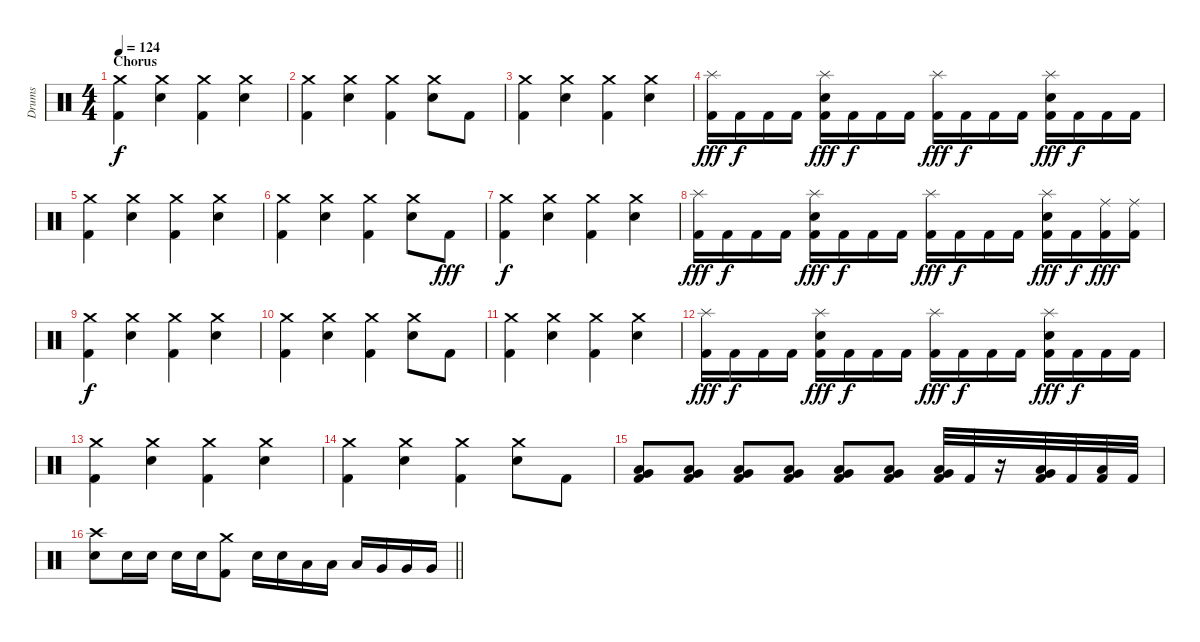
\track ("Drums" "Drums") {instrument percussion}
\staff {score}
\articulation defaults
\ts (4 4)
\section ("" "Chorus")
\tempo 124
\clef neutral
\ks c
("Crash medium (hit)" "Kick (hit) 2").4{dy f} ("Crash medium (hit)" "Electric Snare (hit)").4 ("Crash medium (hit)" "Kick (hit) 2").4 ("Crash medium (hit)" "Electric Snare (hit)").4 |
("Crash medium (hit)" "Kick (hit) 2").4 ("Crash medium (hit)" "Electric Snare (hit)").4 ("Crash medium (hit)" "Kick (hit) 2").4 ("Crash medium (hit)" "Electric Snare (hit)").8 "Kick (hit) 2".8 |
("Crash medium (hit)" "Kick (hit) 2").4 ("Crash medium (hit)" "Electric Snare (hit)").4 ("Crash medium (hit)" "Kick (hit) 2").4 ("Crash medium (hit)" "Electric Snare (hit)").4 |
("Splash (hit)" "Kick (hit) 2").16{dy fff} "Kick (hit) 2".16{dy f} "Kick (hit) 2".16 "Kick (hit) 2".16 ("Splash (hit)" "Electric Snare (hit)" "Kick (hit) 2").16{dy fff} "Kick (hit) 2".16{dy f} "Kick (hit) 2".16 "Kick (hit) 2".16 ("Splash (hit)" "Kick (hit) 2").16{dy fff} "Kick (hit) 2".16{dy f} "Kick (hit) 2".16 "Kick (hit) 2".16 ("Splash (hit)" "Electric Snare (hit)" "Kick (hit) 2").16{dy fff} "Kick (hit) 2".16{dy f} "Kick (hit) 2".16 "Kick (hit) 2".16 |
("Crash medium (hit)" "Kick (hit) 2").4 ("Crash medium (hit)" "Electric Snare (hit)").4 ("Crash medium (hit)" "Kick (hit) 2").4 ("Crash medium (hit)" "Electric Snare (hit)").4 |
("Crash medium (hit)" "Kick (hit) 2").4 ("Crash medium (hit)" "Electric Snare (hit)").4 ("Crash medium (hit)" "Kick (hit) 2").4 ("Crash medium (hit)" "Electric Snare (hit)").8 "Kick (hit) 2".8{dy fff} |
("Crash medium (hit)" "Kick (hit) 2").4{dy f} ("Crash medium (hit)" "Electric Snare (hit)").4 ("Crash medium (hit)" "Kick (hit) 2").4 ("Crash medium (hit)" "Electric Snare (hit)").4 |
("Splash (hit)" "Kick (hit) 2").16{dy fff} "Kick (hit) 2".16{dy f} "Kick (hit) 2".16 "Kick (hit) 2".16 ("Splash (hit)" "Electric Snare (hit)" "Kick (hit) 2").16{dy fff} "Kick (hit) 2".16{dy f} "Kick (hit) 2".16 "Kick (hit) 2".16 ("Splash (hit)" "Kick (hit) 2").16{dy fff} "Kick (hit) 2".16{dy f} "Kick (hit) 2".16 "Kick (hit) 2".16 ("Splash (hit)" "Electric Snare (hit)" "Kick (hit) 2").16{dy fff} "Kick (hit) 2".16{dy f} ("Ride (middle)" "Kick (hit) 2").16{dy fff} ("Ride (middle)" "Kick (hit) 2").16 |
("Crash medium (hit)" "Kick (hit) 2").4{dy f} ("Crash medium (hit)" "Electric Snare (hit)").4 ("Crash medium (hit)" "Kick (hit) 2").4 ("Crash medium (hit)" "Electric Snare (hit)").4 |
("Crash medium (hit)" "Kick (hit) 2").4 ("Crash medium (hit)" "Electric Snare (hit)").4 ("Crash medium (hit)" "Kick (hit) 2").4 ("Crash medium (hit)" "Electric Snare (hit)").8 "Kick (hit) 2".8 |
("Crash medium (hit)" "Kick (hit) 2").4 ("Crash medium (hit)" "Electric Snare (hit)").4 ("Crash medium (hit)" "Kick (hit) 2").4 ("Crash medium (hit)" "Electric Snare (hit)").4 |
("Splash (hit)" "Kick (hit) 2").16{dy fff} "Kick (hit) 2".16{dy f} "Kick (hit) 2".16 "Kick (hit) 2".16 ("Splash (hit)" "Electric Snare (hit)" "Kick (hit) 2").16{dy fff} "Kick (hit) 2".16{dy f} "Kick (hit) 2".16 "Kick (hit) 2".16 ("Splash (hit)" "Kick (hit) 2").16{dy fff} "Kick (hit) 2".16{dy f} "Kick (hit) 2".16 "Kick (hit) 2".16 ("Splash (hit)" "Electric Snare (hit)" "Kick (hit) 2").16{dy fff} "Kick (hit) 2".16{dy f} "Kick (hit) 2".16 "Kick (hit) 2".16 |
("Crash medium (hit)" "Kick (hit) 2").4 ("Crash medium (hit)" "Electric Snare (hit)").4 ("Crash medium (hit)" "Kick (hit) 2").4 ("Crash medium (hit)" "Electric Snare (hit)").4 |
("Crash medium (hit)" "Kick (hit) 2").4 ("Crash medium (hit)" "Electric Snare (hit)").4 ("Crash medium (hit)" "Kick (hit) 2").4 ("Crash medium (hit)" "Electric Snare (hit)").8 "Kick (hit) 2".8 |
("Low Tom (hit)" "Very Low Tom (hit)" "Kick (hit) 2").8 ("Low Tom (hit)" "Very Low Tom (hit)" "Kick (hit) 2").8 ("Low Tom (hit)" "Very Low Tom (hit)" "Kick (hit) 2").8 ("Low Tom (hit)" "Very Low Tom (hit)" "Kick (hit) 2").8 ("Low Tom (hit)" "Very Low Tom (hit)" "Kick (hit) 2").8 ("Low Tom (hit)" "Very Low Tom (hit)" "Kick (hit) 2").8 ("Low Tom (hit)" "Very Low Tom (hit)" "Kick (hit) 2").32 "Kick (hit) 2".32 r.16 ("Low Tom (hit)" "Very Low Tom (hit)" "Kick (hit) 2").32 "Kick (hit) 2".32 ("Low Tom (hit)" "Kick (hit) 2").32 "Kick (hit) 2".32 |
\barLineRight lightlight
("Crash high (hit)" "Electric Snare (hit)").8 "Electric Snare (hit)".16 "Electric Snare (hit)".16 "Electric Snare (hit)".16 "Electric Snare (hit)".16 ("Crash medium (hit)" "Kick (hit) 2").8 "Electric Snare (hit)".16 "Electric Snare (hit)".16 "Low Tom (hit)".16 "Low Tom (hit)".16 "Low Tom (hit)".16 "Very Low Tom (hit)".16 "Very Low Tom (hit)".16 "Very Low Tom (hit)".16
